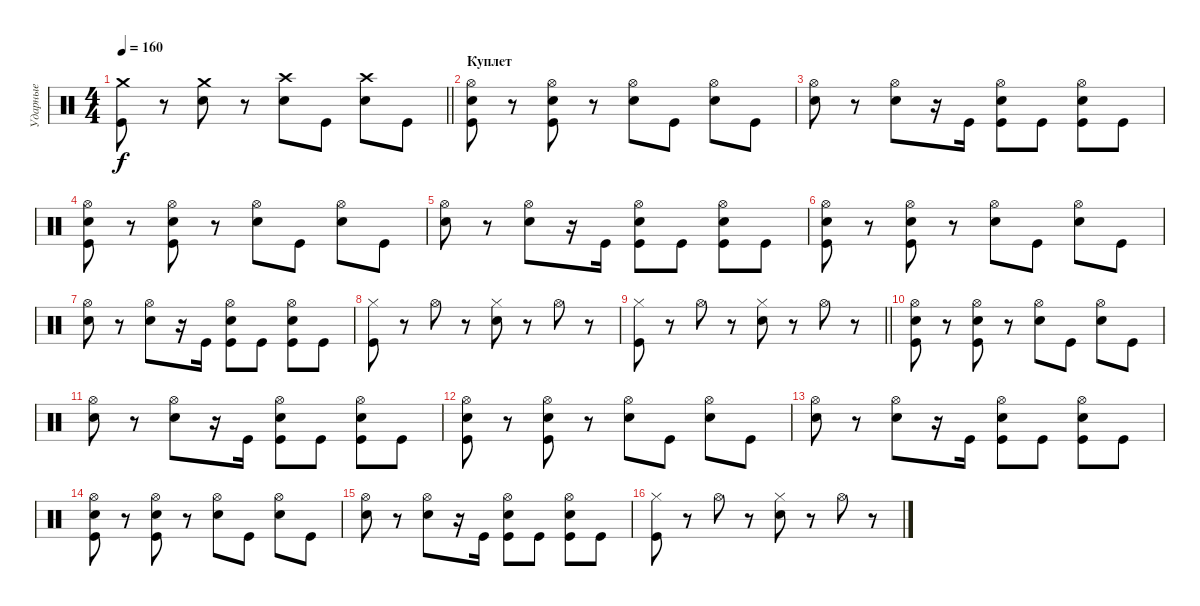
\track ("Ударные" "Ударные") {instrument percussion}
\staff {score}
\articulation defaults
\ts (4 4)
\tempo 160
\clef neutral
\barLineRight lightlight
\ks c
("Crash medium (hit)" "Kick (hit)").8{dy f} r.8 ("Crash medium (hit)" "Electric Snare (hit)").8 r.8 ("Crash high (hit)" "Electric Snare (hit)").8 "Kick (hit)".8 ("Crash high (hit)" "Electric Snare (hit)").8 "Kick (hit)".8 |
\section ("" "Куплет")
("Hi-Hat (open)" "Electric Snare (hit)" "Kick (hit)").8 r.8 ("Hi-Hat (open)" "Electric Snare (hit)" "Kick (hit)").8 r.8 ("Hi-Hat (open)" "Electric Snare (hit)").8 "Kick (hit)".8 ("Hi-Hat (open)" "Electric Snare (hit)").8 "Kick (hit)".8 |
("Hi-Hat (open)" "Electric Snare (hit)").8 r.8 ("Hi-Hat (open)" "Electric Snare (hit)").8 r.16 "Kick (hit)".16 ("Hi-Hat (open)" "Electric Snare (hit)" "Kick (hit)").8 "Kick (hit)".8 ("Hi-Hat (open)" "Electric Snare (hit)" "Kick (hit)").8 "Kick (hit)".8 |
("Hi-Hat (open)" "Electric Snare (hit)" "Kick (hit)").8 r.8 ("Hi-Hat (open)" "Electric Snare (hit)" "Kick (hit)").8 r.8 ("Hi-Hat (open)" "Electric Snare (hit)").8 "Kick (hit)".8 ("Hi-Hat (open)" "Electric Snare (hit)").8 "Kick (hit)".8 |
("Hi-Hat (open)" "Electric Snare (hit)").8 r.8 ("Hi-Hat (open)" "Electric Snare (hit)").8 r.16 "Kick (hit)".16 ("Hi-Hat (open)" "Electric Snare (hit)" "Kick (hit)").8 "Kick (hit)".8 ("Hi-Hat (open)" "Electric Snare (hit)" "Kick (hit)").8 "Kick (hit)".8 |
("Hi-Hat (open)" "Electric Snare (hit)" "Kick (hit)").8 r.8 ("Hi-Hat (open)" "Electric Snare (hit)" "Kick (hit)").8 r.8 ("Hi-Hat (open)" "Electric Snare (hit)").8 "Kick (hit)".8 ("Hi-Hat (open)" "Electric Snare (hit)").8 "Kick (hit)".8 |
("Hi-Hat (open)" "Electric Snare (hit)").8 r.8 ("Hi-Hat (open)" "Electric Snare (hit)").8 r.16 "Kick (hit)".16 ("Hi-Hat (open)" "Electric Snare (hit)" "Kick (hit)").8 "Kick (hit)".8 ("Hi-Hat (open)" "Electric Snare (hit)" "Kick (hit)").8 "Kick (hit)".8 |
("Hi-Hat (closed)" "Kick (hit)").8 r.8 "Hi-Hat (open)".8 r.8 ("Hi-Hat (closed)" "Electric Snare (hit)").8 r.8 "Hi-Hat (open)".8 r.8 |
\barLineRight lightlight
("Hi-Hat (closed)" "Kick (hit)").8 r.8 "Hi-Hat (open)".8 r.8 ("Hi-Hat (closed)" "Electric Snare (hit)").8 r.8 "Hi-Hat (open)".8 r.8 |
\section ("" " ")
("Hi-Hat (open)" "Electric Snare (hit)" "Kick (hit)").8 r.8 ("Hi-Hat (open)" "Electric Snare (hit)" "Kick (hit)").8 r.8 ("Hi-Hat (open)" "Electric Snare (hit)").8 "Kick (hit)".8 ("Hi-Hat (open)" "Electric Snare (hit)").8 "Kick (hit)".8 |
("Hi-Hat (open)" "Electric Snare (hit)").8 r.8 ("Hi-Hat (open)" "Electric Snare (hit)").8 r.16 "Kick (hit)".16 ("Hi-Hat (open)" "Electric Snare (hit)" "Kick (hit)").8 "Kick (hit)".8 ("Hi-Hat (open)" "Electric Snare (hit)" "Kick (hit)").8 "Kick (hit)".8 |
("Hi-Hat (open)" "Electric Snare (hit)" "Kick (hit)").8 r.8 ("Hi-Hat (open)" "Electric Snare (hit)" "Kick (hit)").8 r.8 ("Hi-Hat (open)" "Electric Snare (hit)").8 "Kick (hit)".8 ("Hi-Hat (open)" "Electric Snare (hit)").8 "Kick (hit)".8 |
("Hi-Hat (open)" "Electric Snare (hit)").8 r.8 ("Hi-Hat (open)" "Electric Snare (hit)").8 r.16 "Kick (hit)".16 ("Hi-Hat (open)" "Electric Snare (hit)" "Kick (hit)").8 "Kick (hit)".8 ("Hi-Hat (open)" "Electric Snare (hit)" "Kick (hit)").8 "Kick (hit)".8 |
("Hi-Hat (open)" "Electric Snare (hit)" "Kick (hit)").8 r.8 ("Hi-Hat (open)" "Electric Snare (hit)" "Kick (hit)").8 r.8 ("Hi-Hat (open)" "Electric Snare (hit)").8 "Kick (hit)".8 ("Hi-Hat (open)" "Electric Snare (hit)").8 "Kick (hit)".8 |
("Hi-Hat (open)" "Electric Snare (hit)").8 r.8 ("Hi-Hat (open)" "Electric Snare (hit)").8 r.16 "Kick (hit)".16 ("Hi-Hat (open)" "Electric Snare (hit)" "Kick (hit)").8 "Kick (hit)".8 ("Hi-Hat (open)" "Electric Snare (hit)" "Kick (hit)").8 "Kick (hit)".8 |
("Hi-Hat (closed)" "Kick (hit)").8 r.8 "Hi-Hat (open)".8 r.8 ("Hi-Hat (closed)" "Electric Snare (hit)").8 r.8 "Hi-Hat (open)".8 r.8
